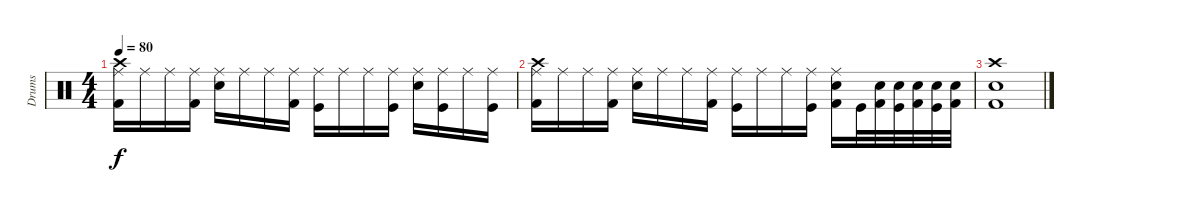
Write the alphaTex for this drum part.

\track ("Drums" "Drums") {instrument percussion}
\staff {score}
\articulation defaults
\ts (4 4)
\tempo 80
\clef neutral
\ks c
("Crash high (hit)" "Ride (middle)" "Kick (hit) 2").16{dy f} "Ride (middle)".16 "Ride (middle)".16 ("Ride (middle)" "Kick (hit) 2").16 ("Ride (middle)" "Snare (hit) 2").16 "Ride (middle)".16 "Ride (middle)".16 ("Ride (middle)" "Kick (hit) 2").16 ("Ride (middle)" "Kick (hit)").16 "Ride (middle)".16 "Ride (middle)".16 ("Ride (middle)" "Kick (hit)").16 ("Ride (middle)" "Snare (hit) 2").16 ("Ride (middle)" "Kick (hit)").16 "Ride (middle)".16 ("Ride (middle)" "Kick (hit)").16 |
("Crash high (hit)" "Ride (middle)" "Kick (hit) 2").16 "Ride (middle)".16 "Ride (middle)".16 ("Ride (middle)" "Kick (hit) 2").16 ("Ride (middle)" "Snare (hit) 2").16 "Ride (middle)".16 "Ride (middle)".16 ("Ride (middle)" "Kick (hit) 2").16 ("Ride (middle)" "Kick (hit)").16 "Ride (middle)".16 "Ride (middle)".16 ("Ride (middle)" "Kick (hit)").16 ("Ride (middle)" "Snare (hit) 2" "Kick (hit) 2").16 "Kick (hit)".32 ("Snare (hit) 2" "Kick (hit) 2").32 ("Snare (hit) 2" "Kick (hit)").32 ("Snare (hit) 2" "Kick (hit) 2").32 ("Snare (hit) 2" "Kick (hit)").32 ("Snare (hit) 2" "Kick (hit) 2").32 |
("Crash high (hit)" "Snare (hit) 2" "Kick (hit) 2").1
